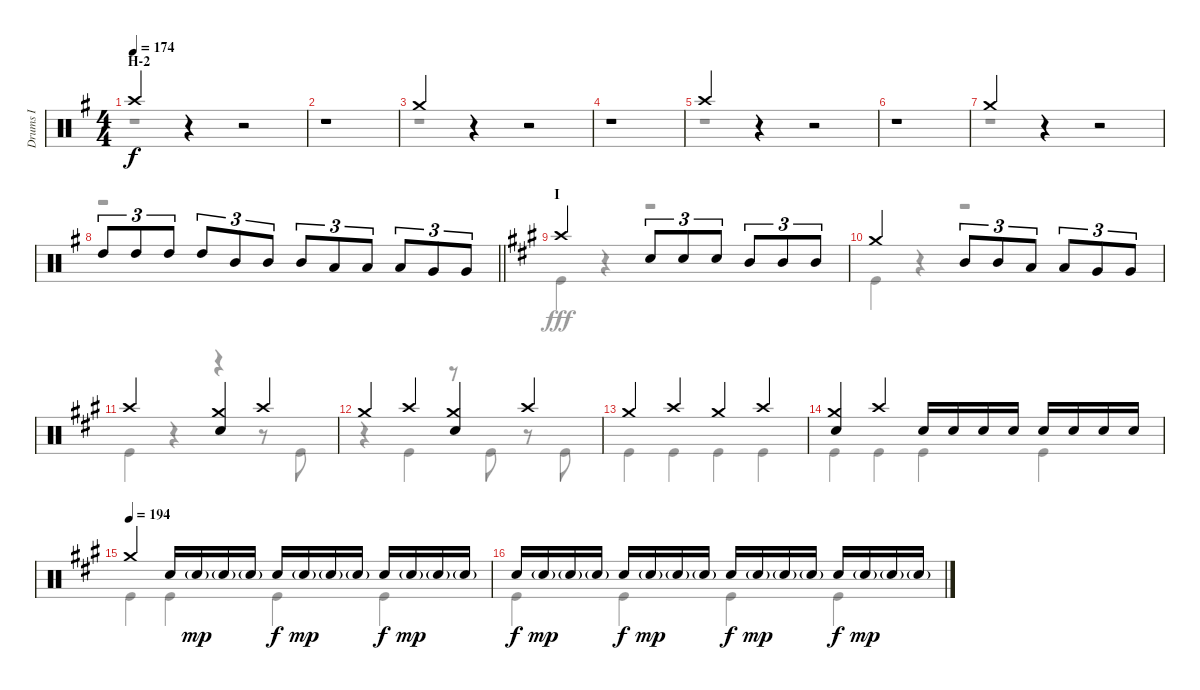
\track ("Drums I" "Drums I") {instrument percussion}
\staff {score}
\articulation defaults
\voice
\ts (4 4)
\section ("" "H-2")
\tempo 174
\clef neutral
\ks g "Crash high (hit)".4{dy f}
r.4 r.2 |
r.1 |
"Crash medium (hit)".4 r.4 r.2 |
r.1 |
"Crash high (hit)".4 r.4 r.2 |
r.1 |
"Crash medium (hit)".4 r.4 r.2 |
\barLineRight lightlight "High Tom (hit)".8{tu (3 2)} "High Tom (hit)".8{tu (3 2)} "High Tom (hit)".8{tu (3 2)} "High Tom (hit)".8{tu (3 2)} "Mid Tom (hit)".8{tu (3 2)} "Mid Tom (hit)".8{tu (3 2)} "Mid Tom (hit)".8{tu (3 2)} "Low Tom (hit)".8{tu (3 2)} "Low Tom (hit)".8{tu (3 2)} "Low Tom (hit)".8{tu (3 2)} "Very Low Tom (hit)".8{tu (3 2)} "Very Low Tom (hit)".8{tu (3 2)}
|
\section ("" "I")
\ks a "Crash high (hit)".2 "Snare (hit) 2".8{tu (3 2)} "Snare (hit) 2".8{tu (3 2)} "Snare (hit) 2".8{tu (3 2)} "Mid Tom (hit)".8{tu (3 2)} "Mid Tom (hit)".8{tu (3 2)} "Mid Tom (hit)".8{tu (3 2)}
|
"Crash medium (hit)".2 "Mid Tom (hit)".8{tu (3 2)} "Mid Tom (hit)".8{tu (3 2)} "Low Tom (hit)".8{tu (3 2)} "Low Tom (hit)".8{tu (3 2)} "Very Low Tom (hit)".8{tu (3 2)} "Very Low Tom (hit)".8{tu (3 2)} |
"Crash high (hit)".2 ("Crash medium (hit)" "Snare (hit) 2").4 "Crash high (hit)".4 |
"Crash medium (hit)".4 "Crash high (hit)".4 ("Crash medium (hit)" "Snare (hit) 2").4 "Crash high (hit)".4 |
"Crash medium (hit)".4 "Crash high (hit)".4 "Crash medium (hit)".4 "Crash high (hit)".4 |
("Crash medium (hit)" "Snare (hit) 2").4 "Crash high (hit)".4 "Snare (hit) 2".16 "Snare (hit) 2".16 "Snare (hit) 2".16 "Snare (hit) 2".16 "Snare (hit) 2".16 "Snare (hit) 2".16 "Snare (hit) 2".16 "Snare (hit) 2".16 |
\tempo (194)
"Crash medium (hit)".4 "Snare (hit) 2".16 "Snare (hit) 2"{g}.16{dy mp} "Snare (hit) 2"{g}.16 "Snare (hit) 2"{g}.16 "Snare (hit) 2".16{dy f} "Snare (hit) 2"{g}.16{dy mp} "Snare (hit) 2"{g}.16 "Snare (hit) 2"{g}.16 "Snare (hit) 2".16{dy f} "Snare (hit) 2"{g}.16{dy mp} "Snare (hit) 2"{g}.16 "Snare (hit) 2"{g}.16 |
"Snare (hit) 2".16{dy f} "Snare (hit) 2"{g}.16{dy mp} "Snare (hit) 2"{g}.16 "Snare (hit) 2"{g}.16 "Snare (hit) 2".16{dy f} "Snare (hit) 2"{g}.16{dy mp} "Snare (hit) 2"{g}.16 "Snare (hit) 2"{g}.16 "Snare (hit) 2".16{dy f} "Snare (hit) 2"{g}.16{dy mp} "Snare (hit) 2"{g}.16 "Snare (hit) 2"{g}.16 "Snare (hit) 2".16{dy f} "Snare (hit) 2"{g}.16{dy mp} "Snare (hit) 2"{g}.16 "Snare (hit) 2"{g}.16
\voice
\clef neutral
\ottava regular
\simile none
\ks g
r.1{dy fff} |
r.1 |
r.1 |
r.1 |
r.1 |
r.1 |
r.1 |
\barLineRight lightlight
r.1 |
\ks a "Kick (hit)".4
r.4 r.2 |
"Kick (hit)".4 r.4 r.2 |
"Kick (hit)".4 r.4 r.4 r.8 "Kick (hit)".8 |
r.4 "Kick (hit)".4 r.8 "Kick (hit)".8 r.8 "Kick (hit)".8 |
"Kick (hit)".4 "Kick (hit)".4 "Kick (hit)".4 "Kick (hit)".4 |
"Kick (hit)".4 "Kick (hit)".4 "Kick (hit)".4 "Kick (hit)".4 |
"Kick (hit)".4 "Kick (hit)".4 "Kick (hit)".4 "Kick (hit)".4 |
"Kick (hit)".4 "Kick (hit)".4 "Kick (hit)".4 "Kick (hit)".4
